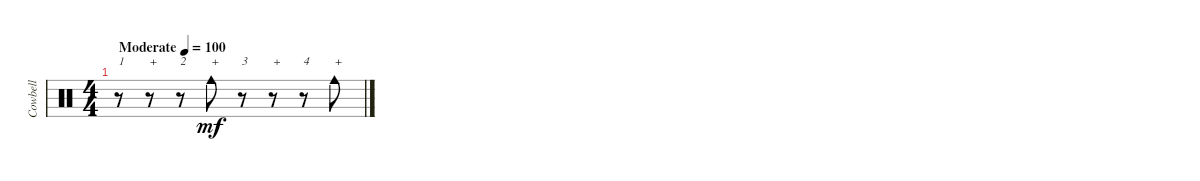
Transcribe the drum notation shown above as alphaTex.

\track ("Cowbell" "Cowbell") {instrument percussion}
\staff {score}
\articulation defaults
\ts (4 4)
\tempo (100 "Moderate")
\clef neutral
\ks c
r.8{txt "1" dy mf} r.8{txt "+"} r.8{txt "2"} "Cowbell medium (hit)".8{txt "+"} r.8{txt "3"} r.8{txt "+"} r.8{txt "4"} "Cowbell medium (hit)".8{txt "+"}
